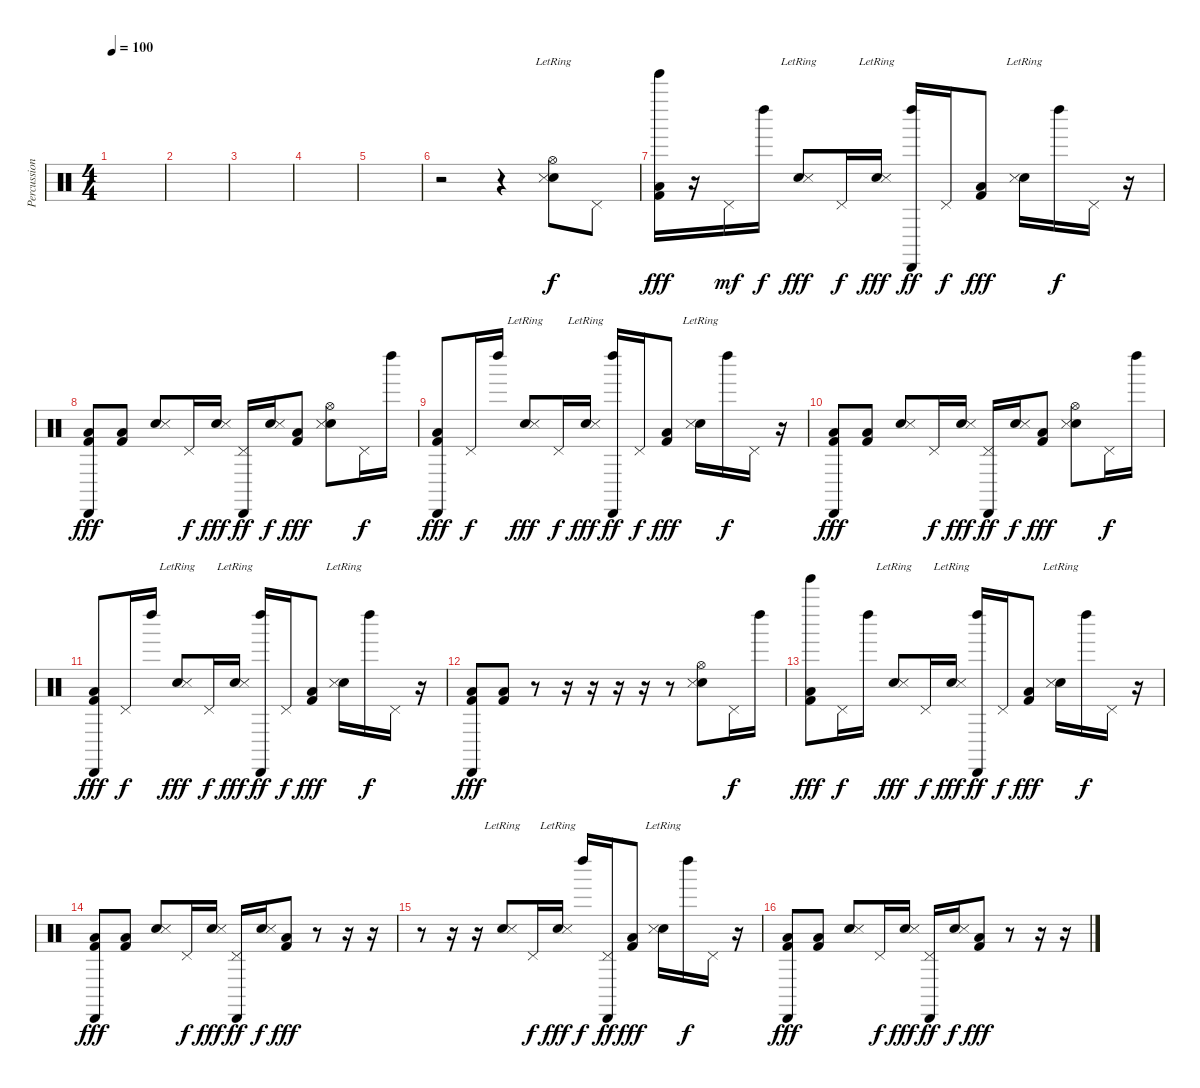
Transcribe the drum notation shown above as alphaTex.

\track ("Percussion" "Percussion") {instrument percussion}
\staff {score}
\articulation defaults
\ts (4 4)
\tempo 100
\clef neutral
\ks c
|
|
|
|
|
r.2 r.4 ("Hi-Hat (open)" "Electric Snare (hit)" "Snare (side stick) 3"{lr}).8 "Pedal Hi-Hat (hit)".8{dy f} |
("Tinkle Bell (hit)" "Low Floor Tom (hit)" "Kick (hit) 2").16{dy fff} r.16 "Pedal Hi-Hat (hit)".16{dy mf} "Left Maraca (hit)".16{dy f} ("Electric Snare (hit)" "Snare (side stick) 3"{lr}).8{dy fff} "Pedal Hi-Hat (hit)".16{dy f} ("Electric Snare (hit)" "Snare (side stick) 3"{lr}).16{dy fff} ("Cabasa (hit)" "Left Maraca (hit)").16{dy ff} "Pedal Hi-Hat (hit)".16{dy f} ("Low Floor Tom (hit)" "Kick (hit) 2").8{dy fff} ("Electric Snare (hit)"{lr} "Snare (side stick) 3"{lr}).16 "Left Maraca (hit)".16{dy f} "Pedal Hi-Hat (hit)".16 r.16 |
("Cabasa (hit)" "Low Floor Tom (hit)" "Kick (hit) 2").8{dy fff} ("Low Floor Tom (hit)" "Kick (hit) 2").8 ("Electric Snare (hit)" "Snare (side stick) 3").8 "Pedal Hi-Hat (hit)".16{dy f} ("Electric Snare (hit)" "Snare (side stick) 3").16{dy fff} ("Cabasa (hit)" "Pedal Hi-Hat (hit)").16{dy ff} ("Electric Snare (hit)" "Snare (side stick) 3").16{dy f} ("Low Floor Tom (hit)" "Kick (hit) 2").8{dy fff} ("Hi-Hat (open)" "Electric Snare (hit)" "Snare (side stick) 3").8 "Pedal Hi-Hat (hit)".16{dy f} "Left Maraca (hit)".16 |
("Cabasa (hit)" "Low Floor Tom (hit)" "Kick (hit) 2").8{dy fff} "Pedal Hi-Hat (hit)".16{dy f} "Left Maraca (hit)".16 ("Electric Snare (hit)" "Snare (side stick) 3"{lr}).8{dy fff} "Pedal Hi-Hat (hit)".16{dy f} ("Electric Snare (hit)" "Snare (side stick) 3"{lr}).16{dy fff} ("Cabasa (hit)" "Left Maraca (hit)").16{dy ff} "Pedal Hi-Hat (hit)".16{dy f} ("Low Floor Tom (hit)" "Kick (hit) 2").8{dy fff} ("Electric Snare (hit)"{lr} "Snare (side stick) 3"{lr}).16 "Left Maraca (hit)".16{dy f} "Pedal Hi-Hat (hit)".16 r.16 |
("Cabasa (hit)" "Low Floor Tom (hit)" "Kick (hit) 2").8{dy fff} ("Low Floor Tom (hit)" "Kick (hit) 2").8 ("Electric Snare (hit)" "Snare (side stick) 3").8 "Pedal Hi-Hat (hit)".16{dy f} ("Electric Snare (hit)" "Snare (side stick) 3").16{dy fff} ("Cabasa (hit)" "Pedal Hi-Hat (hit)").16{dy ff} ("Electric Snare (hit)" "Snare (side stick) 3").16{dy f} ("Low Floor Tom (hit)" "Kick (hit) 2").8{dy fff} ("Hi-Hat (open)" "Electric Snare (hit)" "Snare (side stick) 3").8 "Pedal Hi-Hat (hit)".16{dy f} "Left Maraca (hit)".16 |
("Cabasa (hit)" "Low Floor Tom (hit)" "Kick (hit) 2").8{dy fff} "Pedal Hi-Hat (hit)".16{dy f} "Left Maraca (hit)".16 ("Electric Snare (hit)" "Snare (side stick) 3"{lr}).8{dy fff} "Pedal Hi-Hat (hit)".16{dy f} ("Electric Snare (hit)" "Snare (side stick) 3"{lr}).16{dy fff} ("Cabasa (hit)" "Left Maraca (hit)").16{dy ff} "Pedal Hi-Hat (hit)".16{dy f} ("Low Floor Tom (hit)" "Kick (hit) 2").8{dy fff} ("Electric Snare (hit)"{lr} "Snare (side stick) 3"{lr}).16 "Left Maraca (hit)".16{dy f} "Pedal Hi-Hat (hit)".16 r.16 |
("Cabasa (hit)" "Low Floor Tom (hit)" "Kick (hit) 2").8{dy fff} ("Low Floor Tom (hit)" "Kick (hit) 2").8 r.8 r.16 r.16 r.16 r.16 r.8 ("Hi-Hat (open)" "Electric Snare (hit)" "Snare (side stick) 3").8 "Pedal Hi-Hat (hit)".16{dy f} "Left Maraca (hit)".16 |
("Tinkle Bell (hit)" "Low Floor Tom (hit)" "Kick (hit) 2").8{dy fff} "Pedal Hi-Hat (hit)".16{dy f} "Left Maraca (hit)".16 ("Electric Snare (hit)" "Snare (side stick) 3"{lr}).8{dy fff} "Pedal Hi-Hat (hit)".16{dy f} ("Electric Snare (hit)" "Snare (side stick) 3"{lr}).16{dy fff} ("Cabasa (hit)" "Left Maraca (hit)").16{dy ff} "Pedal Hi-Hat (hit)".16{dy f} ("Low Floor Tom (hit)" "Kick (hit) 2").8{dy fff} ("Electric Snare (hit)"{lr} "Snare (side stick) 3"{lr}).16 "Left Maraca (hit)".16{dy f} "Pedal Hi-Hat (hit)".16 r.16 |
("Cabasa (hit)" "Low Floor Tom (hit)" "Kick (hit) 2").8{dy fff} ("Low Floor Tom (hit)" "Kick (hit) 2").8 ("Electric Snare (hit)" "Snare (side stick) 3").8 "Pedal Hi-Hat (hit)".16{dy f} ("Electric Snare (hit)" "Snare (side stick) 3").16{dy fff} ("Cabasa (hit)" "Pedal Hi-Hat (hit)").16{dy ff} ("Electric Snare (hit)" "Snare (side stick) 3").16{dy f} ("Low Floor Tom (hit)" "Kick (hit) 2").8{dy fff} r.8 r.16 r.16 |
r.8 r.16 r.16 ("Electric Snare (hit)" "Snare (side stick) 3"{lr}).8 "Pedal Hi-Hat (hit)".16{dy f} ("Electric Snare (hit)" "Snare (side stick) 3"{lr}).16{dy fff} "Left Maraca (hit)".16{dy f} ("Cabasa (hit)" "Pedal Hi-Hat (hit)").16{dy ff} ("Low Floor Tom (hit)" "Kick (hit) 2").8{dy fff} ("Electric Snare (hit)"{lr} "Snare (side stick) 3"{lr}).16 "Left Maraca (hit)".16{dy f} "Pedal Hi-Hat (hit)".16 r.16 |
("Cabasa (hit)" "Low Floor Tom (hit)" "Kick (hit) 2").8{dy fff} ("Low Floor Tom (hit)" "Kick (hit) 2").8 ("Electric Snare (hit)" "Snare (side stick) 3").8 "Pedal Hi-Hat (hit)".16{dy f} ("Electric Snare (hit)" "Snare (side stick) 3").16{dy fff} ("Cabasa (hit)" "Pedal Hi-Hat (hit)").16{dy ff} ("Electric Snare (hit)" "Snare (side stick) 3").16{dy f} ("Low Floor Tom (hit)" "Kick (hit) 2").8{dy fff} r.8 r.16 r.16
